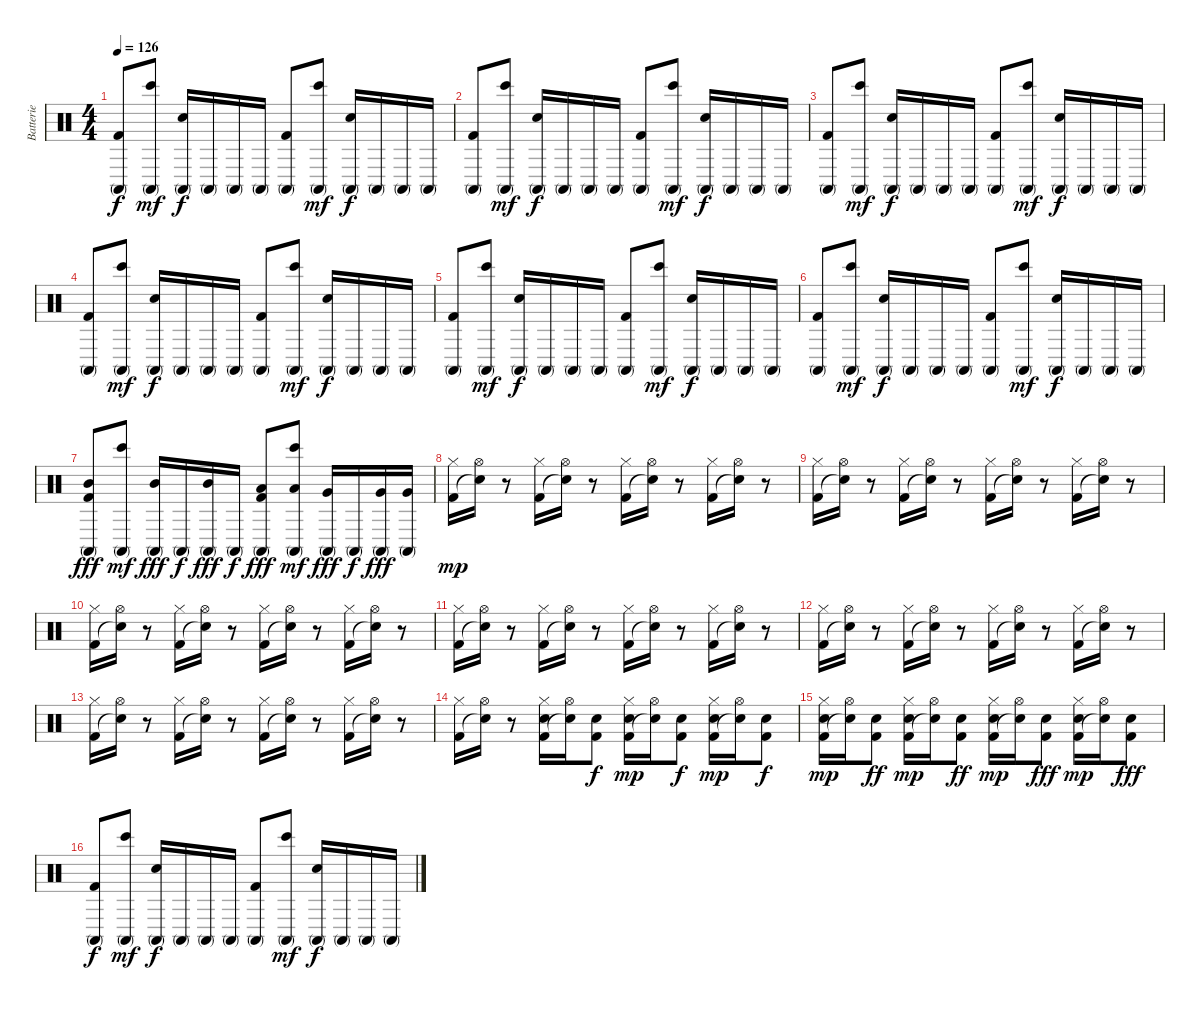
\track ("Batterie" "Batterie") {instrument percussion}
\staff {score}
\articulation defaults
\ts (4 4)
\tempo 126
\clef neutral
\ks c
("Conga high (mute)" "Kick (hit) 2").8{dy f} ("Conga high (mute)" "Bongo High (hit)").8{dy mf} ("Snare (hit) 2" "Conga high (mute)").16{dy f} "Conga high (mute)".16 "Conga high (mute)".16 "Conga high (mute)".16 ("Conga high (mute)" "Kick (hit) 2").8 ("Conga high (mute)" "Bongo High (hit)").8{dy mf} ("Snare (hit) 2" "Conga high (mute)").16{dy f} "Conga high (mute)".16 "Conga high (mute)".16 "Conga high (mute)".16 |
("Conga high (mute)" "Kick (hit) 2").8 ("Conga high (mute)" "Bongo High (hit)").8{dy mf} ("Snare (hit) 2" "Conga high (mute)").16{dy f} "Conga high (mute)".16 "Conga high (mute)".16 "Conga high (mute)".16 ("Conga high (mute)" "Kick (hit) 2").8 ("Conga high (mute)" "Bongo High (hit)").8{dy mf} ("Snare (hit) 2" "Conga high (mute)").16{dy f} "Conga high (mute)".16 "Conga high (mute)".16 "Conga high (mute)".16 |
("Conga high (mute)" "Kick (hit) 2").8 ("Conga high (mute)" "Bongo High (hit)").8{dy mf} ("Snare (hit) 2" "Conga high (mute)").16{dy f} "Conga high (mute)".16 "Conga high (mute)".16 "Conga high (mute)".16 ("Conga high (mute)" "Kick (hit) 2").8 ("Conga high (mute)" "Bongo High (hit)").8{dy mf} ("Snare (hit) 2" "Conga high (mute)").16{dy f} "Conga high (mute)".16 "Conga high (mute)".16 "Conga high (mute)".16 |
("Conga high (mute)" "Kick (hit) 2").8 ("Conga high (mute)" "Bongo High (hit)").8{dy mf} ("Snare (hit) 2" "Conga high (mute)").16{dy f} "Conga high (mute)".16 "Conga high (mute)".16 "Conga high (mute)".16 ("Conga high (mute)" "Kick (hit) 2").8 ("Conga high (mute)" "Bongo High (hit)").8{dy mf} ("Snare (hit) 2" "Conga high (mute)").16{dy f} "Conga high (mute)".16 "Conga high (mute)".16 "Conga high (mute)".16 |
("Conga high (mute)" "Kick (hit) 2").8 ("Conga high (mute)" "Bongo High (hit)").8{dy mf} ("Snare (hit) 2" "Conga high (mute)").16{dy f} "Conga high (mute)".16 "Conga high (mute)".16 "Conga high (mute)".16 ("Conga high (mute)" "Kick (hit) 2").8 ("Conga high (mute)" "Bongo High (hit)").8{dy mf} ("Snare (hit) 2" "Conga high (mute)").16{dy f} "Conga high (mute)".16 "Conga high (mute)".16 "Conga high (mute)".16 |
("Conga high (mute)" "Kick (hit) 2").8 ("Conga high (mute)" "Bongo High (hit)").8{dy mf} ("Snare (hit) 2" "Conga high (mute)").16{dy f} "Conga high (mute)".16 "Conga high (mute)".16 "Conga high (mute)".16 ("Conga high (mute)" "Kick (hit) 2").8 ("Conga high (mute)" "Bongo High (hit)").8{dy mf} ("Snare (hit) 2" "Conga high (mute)").16{dy f} "Conga high (mute)".16 "Conga high (mute)".16 "Conga high (mute)".16 |
("Conga high (mute)" "Mid Tom (hit)" "Kick (hit) 2").8{dy fff} ("Conga high (mute)" "Bongo High (hit)").8{dy mf} ("Conga high (mute)" "Mid Tom (hit)").16{dy fff} "Conga high (mute)".16{dy f} ("Conga high (mute)" "Mid Tom (hit)").16{dy fff} "Conga high (mute)".16{dy f} ("Conga high (mute)" "Low Tom (hit)" "Kick (hit) 2").8{dy fff} ("Conga high (mute)" "Low Tom (hit)" "Bongo High (hit)").8{dy mf} ("Conga high (mute)" "Very Low Tom (hit)").16{dy fff} "Conga high (mute)".16{dy f} ("Conga high (mute)" "Very Low Tom (hit)").16{dy fff} ("Conga high (mute)" "Very Low Tom (hit)").16 |
("Kick (hit) 2" "Hi-Hat (closed)").16{dy mp} ("Snare (hit)"{t} "Hi-Hat (open)").16 r.8 ("Kick (hit) 2" "Hi-Hat (closed)").16 ("Snare (hit)"{t} "Hi-Hat (open)").16 r.8 ("Kick (hit) 2" "Hi-Hat (closed)").16 ("Snare (hit)"{t} "Hi-Hat (open)").16 r.8 ("Kick (hit) 2" "Hi-Hat (closed)").16 ("Snare (hit)"{t} "Hi-Hat (open)").16 r.8 |
("Kick (hit) 2" "Hi-Hat (closed)").16 ("Snare (hit)"{t} "Hi-Hat (open)").16 r.8 ("Kick (hit) 2" "Hi-Hat (closed)").16 ("Snare (hit)"{t} "Hi-Hat (open)").16 r.8 ("Kick (hit) 2" "Hi-Hat (closed)").16 ("Snare (hit)"{t} "Hi-Hat (open)").16 r.8 ("Kick (hit) 2" "Hi-Hat (closed)").16 ("Snare (hit)"{t} "Hi-Hat (open)").16 r.8 |
("Kick (hit) 2" "Hi-Hat (closed)").16 ("Snare (hit)"{t} "Hi-Hat (open)").16 r.8 ("Kick (hit) 2" "Hi-Hat (closed)").16 ("Snare (hit)"{t} "Hi-Hat (open)").16 r.8 ("Kick (hit) 2" "Hi-Hat (closed)").16 ("Snare (hit)"{t} "Hi-Hat (open)").16 r.8 ("Kick (hit) 2" "Hi-Hat (closed)").16 ("Snare (hit)"{t} "Hi-Hat (open)").16 r.8 |
("Kick (hit) 2" "Hi-Hat (closed)").16 ("Snare (hit)"{t} "Hi-Hat (open)").16 r.8 ("Kick (hit) 2" "Hi-Hat (closed)").16 ("Snare (hit)"{t} "Hi-Hat (open)").16 r.8 ("Kick (hit) 2" "Hi-Hat (closed)").16 ("Snare (hit)"{t} "Hi-Hat (open)").16 r.8 ("Kick (hit) 2" "Hi-Hat (closed)").16 ("Snare (hit)"{t} "Hi-Hat (open)").16 r.8 |
("Kick (hit) 2" "Hi-Hat (closed)").16 ("Snare (hit)"{t} "Hi-Hat (open)").16 r.8 ("Kick (hit) 2" "Hi-Hat (closed)").16 ("Snare (hit)"{t} "Hi-Hat (open)").16 r.8 ("Kick (hit) 2" "Hi-Hat (closed)").16 ("Snare (hit)"{t} "Hi-Hat (open)").16 r.8 ("Kick (hit) 2" "Hi-Hat (closed)").16 ("Snare (hit)"{t} "Hi-Hat (open)").16 r.8 |
("Kick (hit) 2" "Hi-Hat (closed)").16 ("Snare (hit)"{t} "Hi-Hat (open)").16 r.8 ("Kick (hit) 2" "Hi-Hat (closed)").16 ("Snare (hit)"{t} "Hi-Hat (open)").16 r.8 ("Kick (hit) 2" "Hi-Hat (closed)").16 ("Snare (hit)"{t} "Hi-Hat (open)").16 r.8 ("Kick (hit) 2" "Hi-Hat (closed)").16 ("Snare (hit)"{t} "Hi-Hat (open)").16 r.8 |
("Kick (hit) 2" "Hi-Hat (closed)").16 ("Snare (hit)"{t} "Hi-Hat (open)").16 r.8 ("Kick (hit) 2" "Snare (hit) 2" "Hi-Hat (closed)").16 ("Snare (hit)"{t} "Hi-Hat (open)").16 ("Kick (hit) 2" "Snare (hit) 2").8{dy f} ("Kick (hit) 2" "Snare (hit) 2" "Hi-Hat (closed)").16{dy mp} ("Snare (hit)"{t} "Hi-Hat (open)").16 ("Kick (hit) 2" "Snare (hit) 2").8{dy f} ("Kick (hit) 2" "Snare (hit) 2" "Hi-Hat (closed)").16{dy mp} ("Snare (hit)"{t} "Hi-Hat (open)").16 ("Kick (hit) 2" "Snare (hit) 2").8{dy f} |
("Kick (hit) 2" "Snare (hit) 2" "Hi-Hat (closed)").16{dy mp} ("Snare (hit)"{t} "Hi-Hat (open)").16 ("Kick (hit) 2" "Snare (hit) 2").8{dy ff} ("Kick (hit) 2" "Snare (hit) 2" "Hi-Hat (closed)").16{dy mp} ("Snare (hit)"{t} "Hi-Hat (open)").16 ("Kick (hit) 2" "Snare (hit) 2").8{dy ff} ("Kick (hit) 2" "Snare (hit) 2" "Hi-Hat (closed)").16{dy mp} ("Snare (hit)"{t} "Hi-Hat (open)").16 ("Kick (hit) 2" "Snare (hit) 2").8{dy fff} ("Kick (hit) 2" "Snare (hit) 2" "Hi-Hat (closed)").16{dy mp} ("Snare (hit)"{t} "Hi-Hat (open)").16 ("Kick (hit) 2" "Snare (hit) 2").8{dy fff} |
("Conga high (mute)" "Kick (hit) 2").8{dy f} ("Conga high (mute)" "Bongo High (hit)").8{dy mf} ("Snare (hit) 2" "Conga high (mute)").16{dy f} "Conga high (mute)".16 "Conga high (mute)".16 "Conga high (mute)".16 ("Conga high (mute)" "Kick (hit) 2").8 ("Conga high (mute)" "Bongo High (hit)").8{dy mf} ("Snare (hit) 2" "Conga high (mute)").16{dy f} "Conga high (mute)".16 "Conga high (mute)".16 "Conga high (mute)".16
